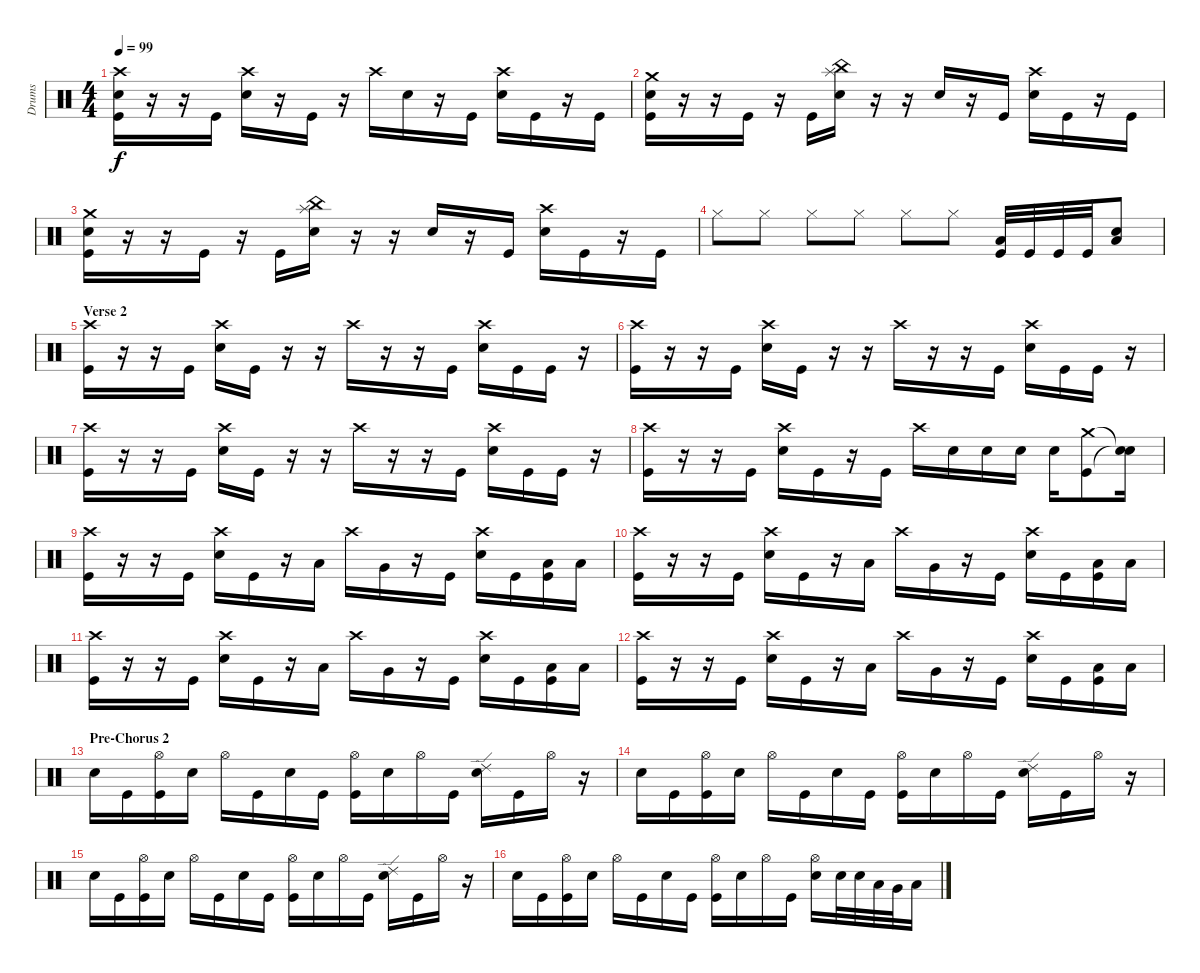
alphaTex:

\track ("Drums" "Drums") {instrument percussion}
\staff {score}
\articulation defaults
\ts (4 4)
\tempo 99
\clef neutral
\ks c
("Kick (hit)" "Electric Snare (hit)" "Crash high (hit)").16{dy f} r.16 r.16 "Kick (hit)".16 ("Electric Snare (hit)" "Crash high (hit)").16 r.16 "Kick (hit)".16 r.16 "Crash high (hit)".16 "Electric Snare (hit)".16 r.16 "Kick (hit)".16 ("Electric Snare (hit)" "Crash high (hit)").16 "Kick (hit)".16 r.16 "Kick (hit)".16 |
("Kick (hit)" "Electric Snare (hit)" "Crash medium (hit)").16 r.16 r.16 "Kick (hit)".16 r.16 "Kick (hit)".16 ("Splash (hit)" "Electric Snare (hit)" "China (hit)").16 r.16 r.16 "Electric Snare (hit)".16 r.16 "Kick (hit)".16 ("Electric Snare (hit)" "Crash high (hit)").16 "Kick (hit)".16 r.16 "Kick (hit)".16 |
("Kick (hit)" "Electric Snare (hit)" "Crash medium (hit)").16 r.16 r.16 "Kick (hit)".16 r.16 "Kick (hit)".16 ("Splash (hit)" "Electric Snare (hit)" "China (hit)").16 r.16 r.16 "Electric Snare (hit)".16 r.16 "Kick (hit)".16 ("Electric Snare (hit)" "Crash high (hit)").16 "Kick (hit)".16 r.16 "Kick (hit)".16 |
"Hi-Hat (closed)".8 "Hi-Hat (closed)".8 "Hi-Hat (closed)".8 "Hi-Hat (closed)".8 "Hi-Hat (closed)".8 "Hi-Hat (closed)".8 ("Low Floor Tom (hit)" "Kick (hit)").32{volume 13} "Kick (hit)".32 "Kick (hit)".32 "Kick (hit)".32 ("Low Floor Tom (hit)" "Electric Snare (hit)").8 |
\section ("" "Verse 2")
("Kick (hit)" "Crash high (hit)").16 r.16 r.16 "Kick (hit)".16 ("Electric Snare (hit)" "Crash high (hit)").16 "Kick (hit)".16 r.16 r.16 "Crash high (hit)".16 r.16 r.16 "Kick (hit)".16 ("Electric Snare (hit)" "Crash high (hit)").16 "Kick (hit)".16 "Kick (hit)".16 r.16 |
("Kick (hit)" "Crash high (hit)").16 r.16 r.16 "Kick (hit)".16 ("Electric Snare (hit)" "Crash high (hit)").16 "Kick (hit)".16 r.16 r.16 "Crash high (hit)".16 r.16 r.16 "Kick (hit)".16 ("Electric Snare (hit)" "Crash high (hit)").16 "Kick (hit)".16 "Kick (hit)".16 r.16 |
("Kick (hit)" "Crash high (hit)").16 r.16 r.16 "Kick (hit)".16 ("Electric Snare (hit)" "Crash high (hit)").16 "Kick (hit)".16 r.16 r.16 "Crash high (hit)".16 r.16 r.16 "Kick (hit)".16 ("Electric Snare (hit)" "Crash high (hit)").16 "Kick (hit)".16 "Kick (hit)".16 r.16 |
("Kick (hit)" "Crash high (hit)").16 r.16 r.16 "Kick (hit)".16 ("Electric Snare (hit)" "Crash high (hit)").16 "Kick (hit)".16 r.16 "Kick (hit)".16 "Crash high (hit)".16 "Electric Snare (hit)".16 "Electric Snare (hit)".16 "Electric Snare (hit)".16 "Electric Snare (hit)".16 ("Crash medium (hit)" "Kick (hit)").8 ("Snare (hit)"{t} "Snare (hit)"{t}).16 |
("Kick (hit)" "Crash high (hit)").16 r.16 r.16 "Kick (hit)".16 ("Electric Snare (hit)" "Crash high (hit)").16 "Kick (hit)".16 r.16 "Low Tom (hit)".16 "Crash high (hit)".16 "Very Low Tom (hit)".16 r.16 "Kick (hit)".16 ("Electric Snare (hit)" "Crash high (hit)").16 "Kick (hit)".16 ("Kick (hit)" "Low Floor Tom (hit)").16 "Low Floor Tom (hit)".16 |
("Kick (hit)" "Crash high (hit)").16 r.16 r.16 "Kick (hit)".16 ("Electric Snare (hit)" "Crash high (hit)").16 "Kick (hit)".16 r.16 "Low Tom (hit)".16 "Crash high (hit)".16 "Very Low Tom (hit)".16 r.16 "Kick (hit)".16 ("Electric Snare (hit)" "Crash high (hit)").16 "Kick (hit)".16 ("Kick (hit)" "Low Floor Tom (hit)").16 "Low Floor Tom (hit)".16 |
("Kick (hit)" "Crash high (hit)").16 r.16 r.16 "Kick (hit)".16 ("Electric Snare (hit)" "Crash high (hit)").16 "Kick (hit)".16 r.16 "Low Tom (hit)".16 "Crash high (hit)".16 "Very Low Tom (hit)".16 r.16 "Kick (hit)".16 ("Electric Snare (hit)" "Crash high (hit)").16 "Kick (hit)".16 ("Kick (hit)" "Low Floor Tom (hit)").16 "Low Floor Tom (hit)".16 |
("Kick (hit)" "Crash high (hit)").16 r.16 r.16 "Kick (hit)".16 ("Electric Snare (hit)" "Crash high (hit)").16 "Kick (hit)".16 r.16 "Low Tom (hit)".16 "Crash high (hit)".16 "Very Low Tom (hit)".16 r.16 "Kick (hit)".16 ("Electric Snare (hit)" "Crash high (hit)").16 "Kick (hit)".16 ("Kick (hit)" "Low Floor Tom (hit)").16 "Low Floor Tom (hit)".16 |
\section ("" "Pre-Chorus 2")
"Electric Snare (hit)".16 "Kick (hit)".16 ("Hi-Hat (open)" "Kick (hit)").16 "Electric Snare (hit)".16 "Hi-Hat (open)".16 "Kick (hit)".16 "Electric Snare (hit)".16 "Kick (hit)".16 ("Hi-Hat (open)" "Kick (hit)").16 "Electric Snare (hit)".16 "Hi-Hat (open)".16 "Kick (hit)".16 ("Ride (edge) 2" "Electric Snare (hit)").16 "Kick (hit)".16 "Hi-Hat (open)".16 r.16 |
"Electric Snare (hit)".16 "Kick (hit)".16 ("Hi-Hat (open)" "Kick (hit)").16 "Electric Snare (hit)".16 "Hi-Hat (open)".16 "Kick (hit)".16 "Electric Snare (hit)".16 "Kick (hit)".16 ("Hi-Hat (open)" "Kick (hit)").16 "Electric Snare (hit)".16 "Hi-Hat (open)".16 "Kick (hit)".16 ("Ride (edge) 2" "Electric Snare (hit)").16 "Kick (hit)".16 "Hi-Hat (open)".16 r.16 |
"Electric Snare (hit)".16 "Kick (hit)".16 ("Hi-Hat (open)" "Kick (hit)").16 "Electric Snare (hit)".16 "Hi-Hat (open)".16 "Kick (hit)".16 "Electric Snare (hit)".16 "Kick (hit)".16 ("Hi-Hat (open)" "Kick (hit)").16 "Electric Snare (hit)".16 "Hi-Hat (open)".16 "Kick (hit)".16 ("Ride (edge) 2" "Electric Snare (hit)").16 "Kick (hit)".16 "Hi-Hat (open)".16 r.16 |
"Electric Snare (hit)".16 "Kick (hit)".16 ("Hi-Hat (open)" "Kick (hit)").16 "Electric Snare (hit)".16 "Hi-Hat (open)".16 "Kick (hit)".16 "Electric Snare (hit)".16 "Kick (hit)".16 ("Hi-Hat (open)" "Kick (hit)").16 "Electric Snare (hit)".16 "Hi-Hat (open)".16 "Kick (hit)".16 ("Hi-Hat (open)" "Electric Snare (hit)").16 "Electric Snare (hit)".32 "Electric Snare (hit)".32 "Low Tom (hit)".32 "Very Low Tom (hit)".32 "Low Floor Tom (hit)".16
